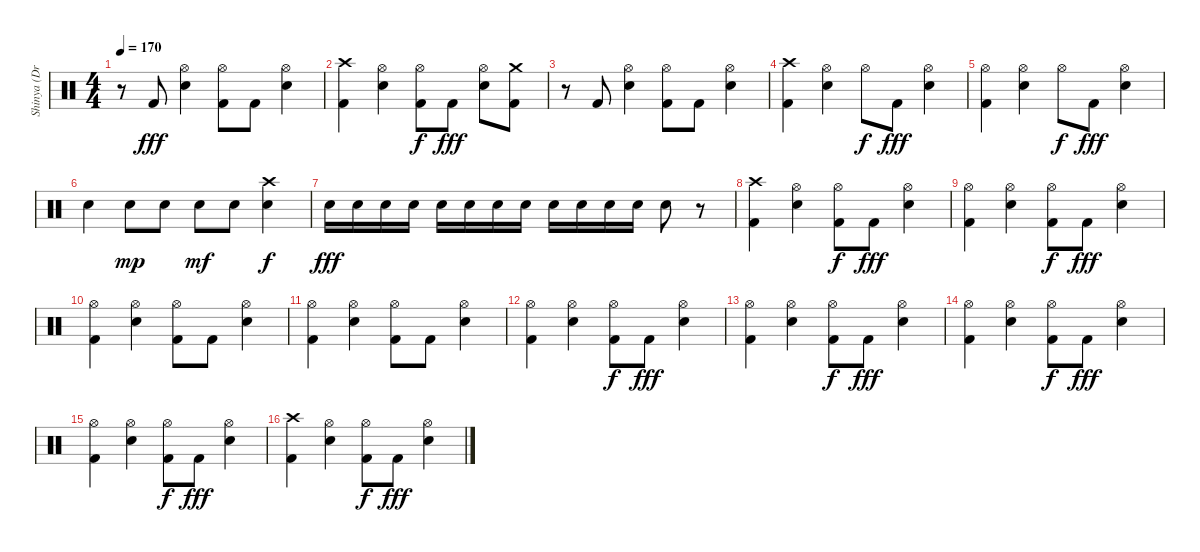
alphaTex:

\track ("Shinya (Drums)" "Shinya (Dr") {instrument percussion}
\staff {score}
\articulation defaults
\ts (4 4)
\tempo 170
\clef neutral
\ks c
r.8{dy fff} "Kick (hit) 2".8 ("Hi-Hat (open)" "Electric Snare (hit)").4 ("Hi-Hat (open)" "Kick (hit) 2").8 "Kick (hit) 2".8 ("Hi-Hat (open)" "Electric Snare (hit)").4 |
("Crash high (hit)" "Kick (hit) 2").4 ("Hi-Hat (open)" "Electric Snare (hit)").4 ("Hi-Hat (open)" "Kick (hit) 2").8{dy f} "Kick (hit) 2".8{dy fff} ("Hi-Hat (open)" "Electric Snare (hit)").8 ("Crash medium (hit)" "Kick (hit) 2").8 |
r.8 "Kick (hit) 2".8 ("Hi-Hat (open)" "Electric Snare (hit)").4 ("Hi-Hat (open)" "Kick (hit) 2").8 "Kick (hit) 2".8 ("Hi-Hat (open)" "Electric Snare (hit)").4 |
("Crash high (hit)" "Kick (hit) 2").4 ("Hi-Hat (open)" "Electric Snare (hit)").4 "Hi-Hat (open)".8{dy f} "Kick (hit) 2".8{dy fff} ("Hi-Hat (open)" "Electric Snare (hit)").4 |
("Hi-Hat (open)" "Kick (hit) 2").4 ("Hi-Hat (open)" "Electric Snare (hit)").4 "Hi-Hat (open)".8{dy f} "Kick (hit) 2".8{dy fff} ("Hi-Hat (open)" "Electric Snare (hit)").4 |
"Electric Snare (hit)".4 "Electric Snare (hit)".8{dy mp} "Electric Snare (hit)".8 "Electric Snare (hit)".8{dy mf} "Electric Snare (hit)".8 ("Crash high (hit)" "Electric Snare (hit)").4{dy f} |
"Electric Snare (hit)".16{dy fff} "Electric Snare (hit)".16 "Electric Snare (hit)".16 "Electric Snare (hit)".16 "Electric Snare (hit)".16 "Electric Snare (hit)".16 "Electric Snare (hit)".16 "Electric Snare (hit)".16 "Electric Snare (hit)".16 "Electric Snare (hit)".16 "Electric Snare (hit)".16 "Electric Snare (hit)".16 "Electric Snare (hit)".8 r.8 |
("Crash high (hit)" "Kick (hit) 2").4 ("Hi-Hat (open)" "Electric Snare (hit)").4 ("Hi-Hat (open)" "Kick (hit) 2").8{dy f} "Kick (hit) 2".8{dy fff} ("Hi-Hat (open)" "Electric Snare (hit)").4 |
("Hi-Hat (open)" "Kick (hit) 2").4 ("Hi-Hat (open)" "Electric Snare (hit)").4 ("Hi-Hat (open)" "Kick (hit) 2").8{dy f} "Kick (hit) 2".8{dy fff} ("Hi-Hat (open)" "Electric Snare (hit)").4 |
("Hi-Hat (open)" "Kick (hit) 2").4 ("Hi-Hat (open)" "Electric Snare (hit)").4 ("Hi-Hat (open)" "Kick (hit) 2").8 "Kick (hit) 2".8 ("Hi-Hat (open)" "Electric Snare (hit)").4 |
("Hi-Hat (open)" "Kick (hit) 2").4 ("Hi-Hat (open)" "Electric Snare (hit)").4 ("Hi-Hat (open)" "Kick (hit) 2").8 "Kick (hit) 2".8 ("Hi-Hat (open)" "Electric Snare (hit)").4 |
("Hi-Hat (open)" "Kick (hit) 2").4 ("Hi-Hat (open)" "Electric Snare (hit)").4 ("Hi-Hat (open)" "Kick (hit) 2").8{dy f} "Kick (hit) 2".8{dy fff} ("Hi-Hat (open)" "Electric Snare (hit)").4 |
("Hi-Hat (open)" "Kick (hit) 2").4 ("Hi-Hat (open)" "Electric Snare (hit)").4 ("Hi-Hat (open)" "Kick (hit) 2").8{dy f} "Kick (hit) 2".8{dy fff} ("Hi-Hat (open)" "Electric Snare (hit)").4 |
("Hi-Hat (open)" "Kick (hit) 2").4 ("Hi-Hat (open)" "Electric Snare (hit)").4 ("Hi-Hat (open)" "Kick (hit) 2").8{dy f} "Kick (hit) 2".8{dy fff} ("Hi-Hat (open)" "Electric Snare (hit)").4 |
("Hi-Hat (open)" "Kick (hit) 2").4 ("Hi-Hat (open)" "Electric Snare (hit)").4 ("Hi-Hat (open)" "Kick (hit) 2").8{dy f} "Kick (hit) 2".8{dy fff} ("Hi-Hat (open)" "Electric Snare (hit)").4 |
("Crash high (hit)" "Kick (hit) 2").4 ("Hi-Hat (open)" "Electric Snare (hit)").4 ("Hi-Hat (open)" "Kick (hit) 2").8{dy f} "Kick (hit) 2".8{dy fff} ("Hi-Hat (open)" "Electric Snare (hit)").4
